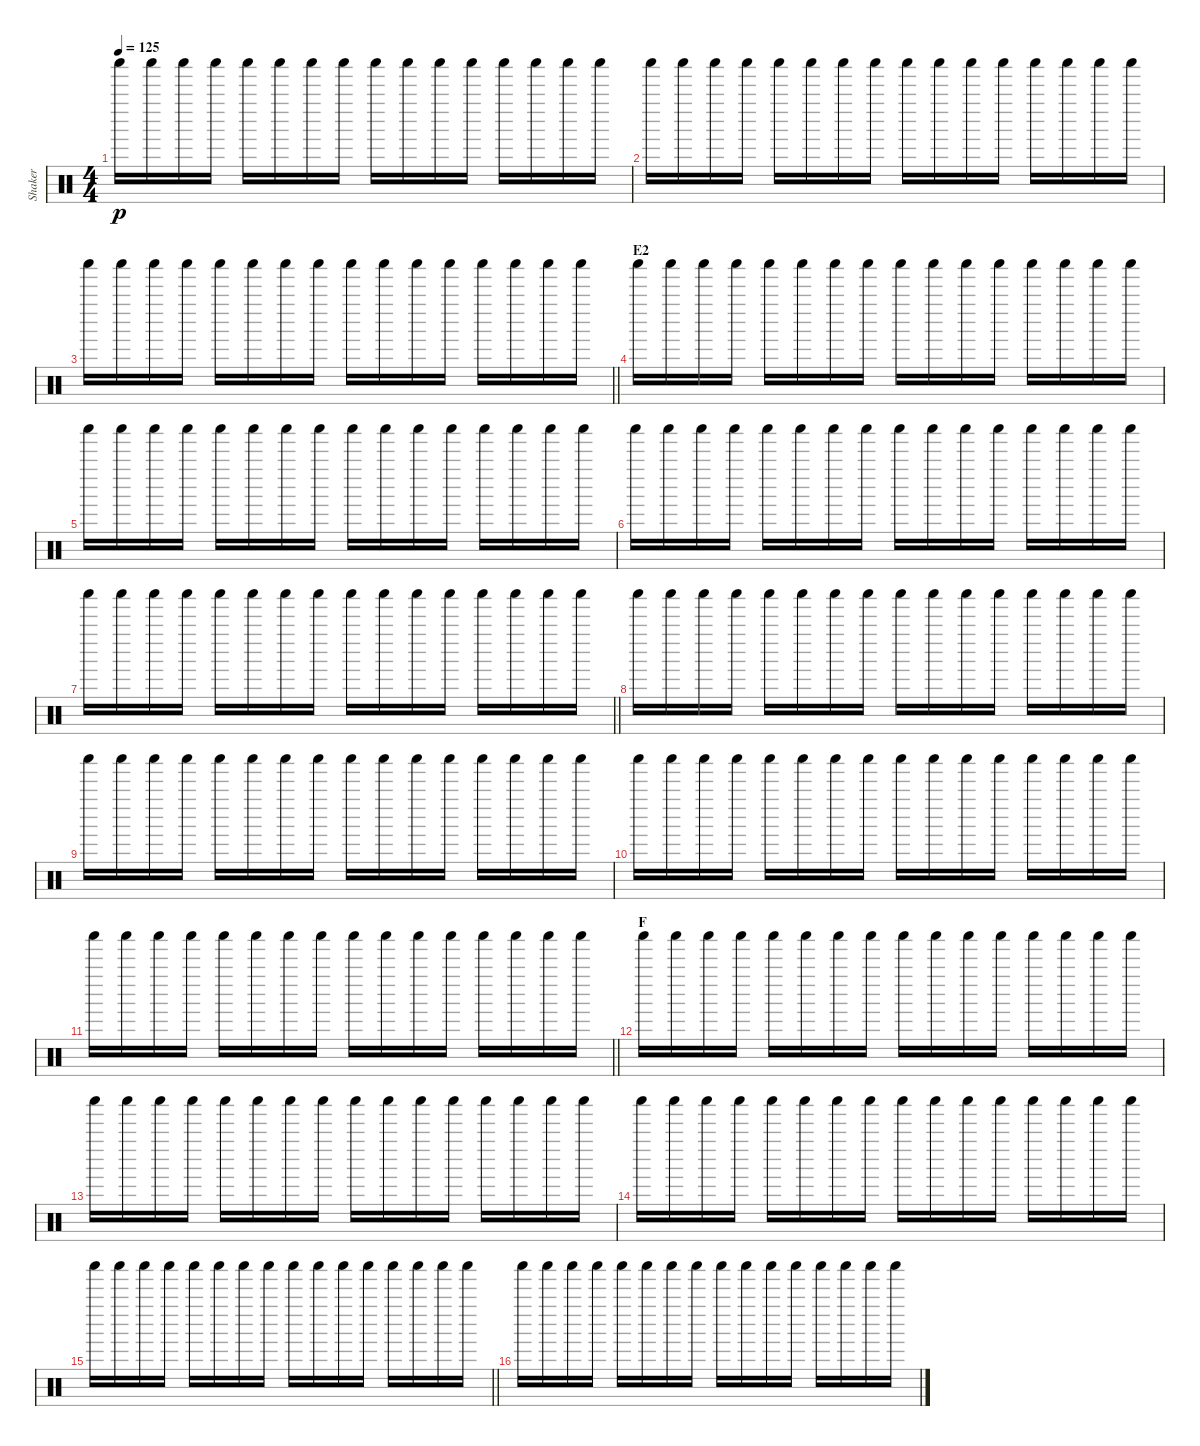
\track ("Shaker" "Shaker") {instrument percussion}
\staff {score}
\articulation defaults
\ts (4 4)
\tempo 125
\clef neutral
\ks c "Shaker (hit)".16{dy p} "Shaker (hit)".16 "Shaker (hit)".16 "Shaker (hit)".16 "Shaker (hit)".16 "Shaker (hit)".16 "Shaker (hit)".16 "Shaker (hit)".16 "Shaker (hit)".16 "Shaker (hit)".16 "Shaker (hit)".16 "Shaker (hit)".16 "Shaker (hit)".16 "Shaker (hit)".16 "Shaker (hit)".16 "Shaker (hit)".16
|
"Shaker (hit)".16 "Shaker (hit)".16 "Shaker (hit)".16 "Shaker (hit)".16 "Shaker (hit)".16 "Shaker (hit)".16 "Shaker (hit)".16 "Shaker (hit)".16 "Shaker (hit)".16 "Shaker (hit)".16 "Shaker (hit)".16 "Shaker (hit)".16 "Shaker (hit)".16 "Shaker (hit)".16 "Shaker (hit)".16 "Shaker (hit)".16 |
\barLineRight lightlight "Shaker (hit)".16 "Shaker (hit)".16 "Shaker (hit)".16 "Shaker (hit)".16 "Shaker (hit)".16 "Shaker (hit)".16 "Shaker (hit)".16 "Shaker (hit)".16 "Shaker (hit)".16 "Shaker (hit)".16 "Shaker (hit)".16 "Shaker (hit)".16 "Shaker (hit)".16 "Shaker (hit)".16 "Shaker (hit)".16 "Shaker (hit)".16
|
\section ("" "E2")
"Shaker (hit)".16 "Shaker (hit)".16 "Shaker (hit)".16 "Shaker (hit)".16 "Shaker (hit)".16 "Shaker (hit)".16 "Shaker (hit)".16 "Shaker (hit)".16 "Shaker (hit)".16 "Shaker (hit)".16 "Shaker (hit)".16 "Shaker (hit)".16 "Shaker (hit)".16 "Shaker (hit)".16 "Shaker (hit)".16 "Shaker (hit)".16 |
"Shaker (hit)".16 "Shaker (hit)".16 "Shaker (hit)".16 "Shaker (hit)".16 "Shaker (hit)".16 "Shaker (hit)".16 "Shaker (hit)".16 "Shaker (hit)".16 "Shaker (hit)".16 "Shaker (hit)".16 "Shaker (hit)".16 "Shaker (hit)".16 "Shaker (hit)".16 "Shaker (hit)".16 "Shaker (hit)".16 "Shaker (hit)".16 |
"Shaker (hit)".16 "Shaker (hit)".16 "Shaker (hit)".16 "Shaker (hit)".16 "Shaker (hit)".16 "Shaker (hit)".16 "Shaker (hit)".16 "Shaker (hit)".16 "Shaker (hit)".16 "Shaker (hit)".16 "Shaker (hit)".16 "Shaker (hit)".16 "Shaker (hit)".16 "Shaker (hit)".16 "Shaker (hit)".16 "Shaker (hit)".16 |
\barLineRight lightlight "Shaker (hit)".16 "Shaker (hit)".16 "Shaker (hit)".16 "Shaker (hit)".16 "Shaker (hit)".16 "Shaker (hit)".16 "Shaker (hit)".16 "Shaker (hit)".16 "Shaker (hit)".16 "Shaker (hit)".16 "Shaker (hit)".16 "Shaker (hit)".16 "Shaker (hit)".16 "Shaker (hit)".16 "Shaker (hit)".16 "Shaker (hit)".16
|
"Shaker (hit)".16 "Shaker (hit)".16 "Shaker (hit)".16 "Shaker (hit)".16 "Shaker (hit)".16 "Shaker (hit)".16 "Shaker (hit)".16 "Shaker (hit)".16 "Shaker (hit)".16 "Shaker (hit)".16 "Shaker (hit)".16 "Shaker (hit)".16 "Shaker (hit)".16 "Shaker (hit)".16 "Shaker (hit)".16 "Shaker (hit)".16 |
"Shaker (hit)".16 "Shaker (hit)".16 "Shaker (hit)".16 "Shaker (hit)".16 "Shaker (hit)".16 "Shaker (hit)".16 "Shaker (hit)".16 "Shaker (hit)".16 "Shaker (hit)".16 "Shaker (hit)".16 "Shaker (hit)".16 "Shaker (hit)".16 "Shaker (hit)".16 "Shaker (hit)".16 "Shaker (hit)".16 "Shaker (hit)".16 |
"Shaker (hit)".16 "Shaker (hit)".16 "Shaker (hit)".16 "Shaker (hit)".16 "Shaker (hit)".16 "Shaker (hit)".16 "Shaker (hit)".16 "Shaker (hit)".16 "Shaker (hit)".16 "Shaker (hit)".16 "Shaker (hit)".16 "Shaker (hit)".16 "Shaker (hit)".16 "Shaker (hit)".16 "Shaker (hit)".16 "Shaker (hit)".16 |
\barLineRight lightlight "Shaker (hit)".16 "Shaker (hit)".16 "Shaker (hit)".16 "Shaker (hit)".16 "Shaker (hit)".16 "Shaker (hit)".16 "Shaker (hit)".16 "Shaker (hit)".16 "Shaker (hit)".16 "Shaker (hit)".16 "Shaker (hit)".16 "Shaker (hit)".16 "Shaker (hit)".16 "Shaker (hit)".16 "Shaker (hit)".16 "Shaker (hit)".16
|
\section ("" "F")
"Shaker (hit)".16 "Shaker (hit)".16 "Shaker (hit)".16 "Shaker (hit)".16 "Shaker (hit)".16 "Shaker (hit)".16 "Shaker (hit)".16 "Shaker (hit)".16 "Shaker (hit)".16 "Shaker (hit)".16 "Shaker (hit)".16 "Shaker (hit)".16 "Shaker (hit)".16 "Shaker (hit)".16 "Shaker (hit)".16 "Shaker (hit)".16 |
"Shaker (hit)".16 "Shaker (hit)".16 "Shaker (hit)".16 "Shaker (hit)".16 "Shaker (hit)".16 "Shaker (hit)".16 "Shaker (hit)".16 "Shaker (hit)".16 "Shaker (hit)".16 "Shaker (hit)".16 "Shaker (hit)".16 "Shaker (hit)".16 "Shaker (hit)".16 "Shaker (hit)".16 "Shaker (hit)".16 "Shaker (hit)".16 |
"Shaker (hit)".16 "Shaker (hit)".16 "Shaker (hit)".16 "Shaker (hit)".16 "Shaker (hit)".16 "Shaker (hit)".16 "Shaker (hit)".16 "Shaker (hit)".16 "Shaker (hit)".16 "Shaker (hit)".16 "Shaker (hit)".16 "Shaker (hit)".16 "Shaker (hit)".16 "Shaker (hit)".16 "Shaker (hit)".16 "Shaker (hit)".16 |
\barLineRight lightlight "Shaker (hit)".16 "Shaker (hit)".16 "Shaker (hit)".16 "Shaker (hit)".16 "Shaker (hit)".16 "Shaker (hit)".16 "Shaker (hit)".16 "Shaker (hit)".16 "Shaker (hit)".16 "Shaker (hit)".16 "Shaker (hit)".16 "Shaker (hit)".16 "Shaker (hit)".16 "Shaker (hit)".16 "Shaker (hit)".16 "Shaker (hit)".16
|
"Shaker (hit)".16 "Shaker (hit)".16 "Shaker (hit)".16 "Shaker (hit)".16 "Shaker (hit)".16 "Shaker (hit)".16 "Shaker (hit)".16 "Shaker (hit)".16 "Shaker (hit)".16 "Shaker (hit)".16 "Shaker (hit)".16 "Shaker (hit)".16 "Shaker (hit)".16 "Shaker (hit)".16 "Shaker (hit)".16 "Shaker (hit)".16
